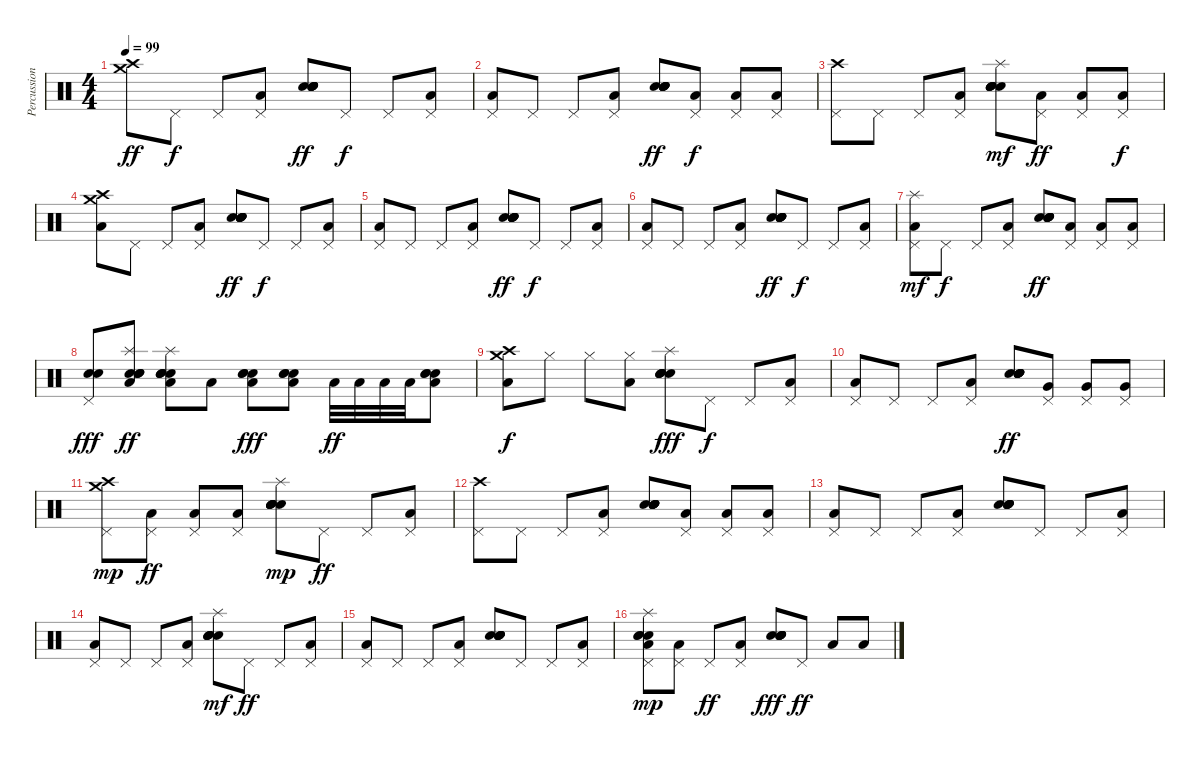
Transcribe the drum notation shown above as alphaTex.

\track ("Percussion" "Percussion") {instrument percussion}
\staff {score}
\articulation defaults
\ts (4 4)
\tempo 99
\clef neutral
\ks c
("Crash medium (hit)" "Crash high (hit)").8{dy ff} "Pedal Hi-Hat (hit)".8{dy f} "Pedal Hi-Hat (hit)".8 ("Pedal Hi-Hat (hit)" "Low Floor Tom (hit)").8 ("Snare (hit) 2" "Snare (hit) 2" "Snare (hit) 2" "Snare (hit) 2" "Snare (hit) 2" "Electric Snare (hit)").8{dy ff} "Pedal Hi-Hat (hit)".8{dy f} "Pedal Hi-Hat (hit)".8 ("Pedal Hi-Hat (hit)" "Low Floor Tom (hit)").8 |
("Pedal Hi-Hat (hit)" "Low Floor Tom (hit)").8 "Pedal Hi-Hat (hit)".8 "Pedal Hi-Hat (hit)".8 ("Pedal Hi-Hat (hit)" "Low Floor Tom (hit)").8 ("Snare (hit) 2" "Snare (hit) 2" "Snare (hit) 2" "Snare (hit) 2" "Snare (hit) 2" "Electric Snare (hit)").8{dy ff} ("Pedal Hi-Hat (hit)" "Low Floor Tom (hit)").8{dy f} ("Pedal Hi-Hat (hit)" "Low Floor Tom (hit)").8 ("Pedal Hi-Hat (hit)" "Low Floor Tom (hit)").8 |
("Pedal Hi-Hat (hit)" "Crash high (hit)").8 "Pedal Hi-Hat (hit)".8 "Pedal Hi-Hat (hit)".8 ("Pedal Hi-Hat (hit)" "Low Floor Tom (hit)").8 ("Snare (hit) 2" "Snare (hit) 2" "Snare (hit) 2" "Electric Snare (hit)" "Snare (hit) 2" "Splash (hit)").8{dy mf} ("Pedal Hi-Hat (hit)" "Low Floor Tom (hit)").8{dy ff} ("Pedal Hi-Hat (hit)" "Low Floor Tom (hit)").8 ("Pedal Hi-Hat (hit)" "Low Floor Tom (hit)").8{dy f} |
("Low Floor Tom (hit)" "Crash high (hit)" "Crash medium (hit)").8 "Pedal Hi-Hat (hit)".8 "Pedal Hi-Hat (hit)".8 ("Pedal Hi-Hat (hit)" "Low Floor Tom (hit)").8 ("Snare (hit) 2" "Snare (hit) 2" "Snare (hit) 2" "Electric Snare (hit)" "Snare (hit) 2" "Snare (hit) 2").8{dy ff} "Pedal Hi-Hat (hit)".8{dy f} "Pedal Hi-Hat (hit)".8 ("Pedal Hi-Hat (hit)" "Low Floor Tom (hit)").8 |
("Pedal Hi-Hat (hit)" "Low Floor Tom (hit)").8 "Pedal Hi-Hat (hit)".8 "Pedal Hi-Hat (hit)".8 ("Pedal Hi-Hat (hit)" "Low Floor Tom (hit)").8 ("Snare (hit) 2" "Snare (hit) 2" "Snare (hit) 2" "Electric Snare (hit)" "Snare (hit) 2" "Snare (hit) 2").8{dy ff} "Pedal Hi-Hat (hit)".8{dy f} "Pedal Hi-Hat (hit)".8 ("Pedal Hi-Hat (hit)" "Low Floor Tom (hit)").8 |
("Pedal Hi-Hat (hit)" "Low Floor Tom (hit)").8 "Pedal Hi-Hat (hit)".8 "Pedal Hi-Hat (hit)".8 ("Pedal Hi-Hat (hit)" "Low Floor Tom (hit)").8 ("Snare (hit) 2" "Snare (hit) 2" "Snare (hit) 2" "Electric Snare (hit)" "Snare (hit) 2" "Snare (hit) 2").8{dy ff} "Pedal Hi-Hat (hit)".8{dy f} "Pedal Hi-Hat (hit)".8 ("Pedal Hi-Hat (hit)" "Low Floor Tom (hit)").8 |
("Splash (hit)" "Pedal Hi-Hat (hit)" "Low Floor Tom (hit)").8{dy mf} "Pedal Hi-Hat (hit)".8{dy f} "Pedal Hi-Hat (hit)".8 ("Pedal Hi-Hat (hit)" "Low Floor Tom (hit)").8 ("Snare (hit) 2" "Snare (hit) 2" "Snare (hit) 2" "Electric Snare (hit)" "Snare (hit) 2" "Snare (hit) 2").8{dy ff} ("Pedal Hi-Hat (hit)" "Low Floor Tom (hit)").8 ("Pedal Hi-Hat (hit)" "Low Floor Tom (hit)").8 ("Pedal Hi-Hat (hit)" "Low Floor Tom (hit)").8 |
("Pedal Hi-Hat (hit)" "Electric Snare (hit)" "Hand Clap (hit)").8{dy fff} ("Hand Clap (hit)" "Splash (hit)" "Snare (hit) 2" "Snare (hit) 2" "Low Floor Tom (hit)" "Snare (hit) 2").8{dy ff} ("Hand Clap (hit)" "Splash (hit)" "Snare (hit) 2" "Snare (hit) 2" "Low Floor Tom (hit)" "Snare (hit) 2").8 "Low Floor Tom (hit)".8 ("Low Floor Tom (hit)" "Electric Snare (hit)" "Hand Clap (hit)" "Snare (hit) 2").8{dy fff} ("Low Floor Tom (hit)" "Electric Snare (hit)" "Hand Clap (hit)" "Snare (hit) 2").8 "Low Floor Tom (hit)".32{dy ff} "Low Floor Tom (hit)".32 "Low Floor Tom (hit)".32 "Low Floor Tom (hit)".32 ("Snare (hit) 2" "Snare (hit) 2" "Low Floor Tom (hit)" "Electric Snare (hit)").8 |
("Crash medium (hit)" "Crash high (hit)" "Low Floor Tom (hit)").8{dy f} "Hi-Hat (closed)".8 "Hi-Hat (closed)".8 ("Hi-Hat (closed)" "Low Floor Tom (hit)").8 ("Snare (hit) 2" "Snare (hit) 2" "Snare (hit) 2" "Electric Snare (hit)" "Snare (hit) 2" "Splash (hit)").8{dy fff} "Pedal Hi-Hat (hit)".8{dy f} "Pedal Hi-Hat (hit)".8 ("Pedal Hi-Hat (hit)" "Low Floor Tom (hit)").8 |
("Pedal Hi-Hat (hit)" "Low Floor Tom (hit)").8 "Pedal Hi-Hat (hit)".8 "Pedal Hi-Hat (hit)".8 ("Pedal Hi-Hat (hit)" "Low Floor Tom (hit)").8 ("Snare (hit) 2" "Snare (hit) 2" "Snare (hit) 2" "Snare (hit) 2" "Electric Snare (hit)" "Snare (hit) 2").8{dy ff} ("Pedal Hi-Hat (hit)" "Very Low Tom (hit)").8 ("Pedal Hi-Hat (hit)" "Very Low Tom (hit)").8 ("Pedal Hi-Hat (hit)" "Very Low Tom (hit)").8 |
("Pedal Hi-Hat (hit)" "Crash high (hit)" "Crash medium (hit)").8{dy mp} ("Pedal Hi-Hat (hit)" "Low Floor Tom (hit)").8{dy ff} ("Pedal Hi-Hat (hit)" "Low Floor Tom (hit)").8 ("Pedal Hi-Hat (hit)" "Low Floor Tom (hit)").8 ("Snare (hit) 2" "Snare (hit) 2" "Snare (hit) 2" "Electric Snare (hit)" "Snare (hit) 2" "Splash (hit)").8{dy mp} "Pedal Hi-Hat (hit)".8{dy ff} "Pedal Hi-Hat (hit)".8 ("Pedal Hi-Hat (hit)" "Low Floor Tom (hit)").8 |
("Pedal Hi-Hat (hit)" "Crash high (hit)").8 "Pedal Hi-Hat (hit)".8 "Pedal Hi-Hat (hit)".8 ("Pedal Hi-Hat (hit)" "Low Floor Tom (hit)").8 ("Snare (hit) 2" "Snare (hit) 2" "Snare (hit) 2" "Snare (hit) 2" "Electric Snare (hit)" "Snare (hit) 2").8 ("Pedal Hi-Hat (hit)" "Low Floor Tom (hit)").8 ("Pedal Hi-Hat (hit)" "Low Floor Tom (hit)").8 ("Pedal Hi-Hat (hit)" "Low Floor Tom (hit)").8 |
("Pedal Hi-Hat (hit)" "Low Floor Tom (hit)").8 "Pedal Hi-Hat (hit)".8 "Pedal Hi-Hat (hit)".8 ("Pedal Hi-Hat (hit)" "Low Floor Tom (hit)").8 ("Hand Clap (hit)" "Snare (hit) 2" "Snare (hit) 2" "Electric Snare (hit)" "Snare (hit) 2" "Snare (hit) 2").8 "Pedal Hi-Hat (hit)".8 "Pedal Hi-Hat (hit)".8 ("Pedal Hi-Hat (hit)" "Low Floor Tom (hit)").8 |
("Pedal Hi-Hat (hit)" "Low Floor Tom (hit)").8 "Pedal Hi-Hat (hit)".8 "Pedal Hi-Hat (hit)".8 ("Pedal Hi-Hat (hit)" "Low Floor Tom (hit)").8 ("Snare (hit) 2" "Snare (hit) 2" "Snare (hit) 2" "Electric Snare (hit)" "Snare (hit) 2" "Splash (hit)").8{dy mf} "Pedal Hi-Hat (hit)".8{dy ff} "Pedal Hi-Hat (hit)".8 ("Pedal Hi-Hat (hit)" "Low Floor Tom (hit)").8 |
("Pedal Hi-Hat (hit)" "Low Floor Tom (hit)").8 "Pedal Hi-Hat (hit)".8 "Pedal Hi-Hat (hit)".8 ("Pedal Hi-Hat (hit)" "Low Floor Tom (hit)").8 ("Snare (hit) 2" "Snare (hit) 2" "Snare (hit) 2" "Electric Snare (hit)" "Snare (hit) 2" "Snare (hit) 2").8 "Pedal Hi-Hat (hit)".8 "Pedal Hi-Hat (hit)".8 ("Pedal Hi-Hat (hit)" "Low Floor Tom (hit)").8 |
("Splash (hit)" "Electric Snare (hit)" "Pedal Hi-Hat (hit)" "Low Floor Tom (hit)" "Snare (hit) 2" "Snare (hit) 2").8{dy mp} ("Pedal Hi-Hat (hit)" "Low Floor Tom (hit)").8 "Pedal Hi-Hat (hit)".8{dy ff} ("Pedal Hi-Hat (hit)" "Low Floor Tom (hit)").8 ("Snare (hit) 2" "Snare (hit) 2" "Electric Snare (hit)" "Snare (hit) 2" "Snare (hit) 2" "Hand Clap (hit)").8{dy fff} "Pedal Hi-Hat (hit)".8{dy ff} "Low Floor Tom (hit)".8 "Low Floor Tom (hit)".8
